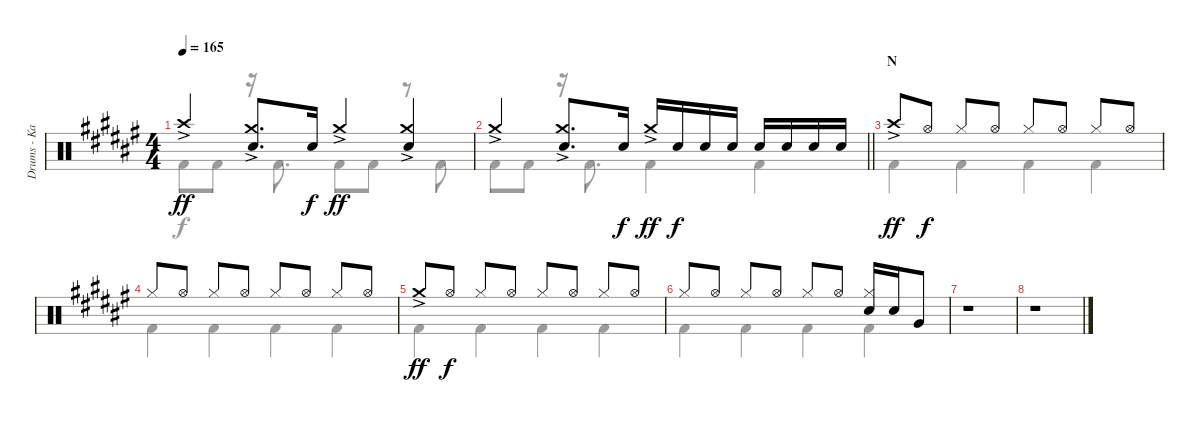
\track ("Drums - Kai" "Drums - Ka") {instrument percussion}
\staff {score}
\articulation defaults
\voice
\ts (4 4)
\tempo 165
\clef neutral
\ks f# "Crash high (hit)"{ac}.4{dy ff}
("Crash medium (hit)"{ac} "Electric Snare (hit)").8{d} "Electric Snare (hit)".16{dy f} "Crash medium (hit)"{ac}.4{dy ff} ("Crash medium (hit)"{ac} "Electric Snare (hit)").4 |
\barLineRight lightlight "Crash medium (hit)"{ac}.4
("Crash medium (hit)"{ac} "Electric Snare (hit)").8{d} "Electric Snare (hit)".16{dy f} "Crash medium (hit)"{ac}.16{dy ff} "Electric Snare (hit)".16{dy f} "Electric Snare (hit)".16 "Electric Snare (hit)".16 "Electric Snare (hit)".16 "Electric Snare (hit)".16 "Electric Snare (hit)".16 "Electric Snare (hit)".16 |
\section ("" "N")
"Crash high (hit)"{ac}.8{dy ff} "Hi-Hat (open)".8{dy f} "Hi-Hat (closed)".8 "Hi-Hat (open)".8 "Hi-Hat (closed)".8 "Hi-Hat (open)".8 "Hi-Hat (closed)".8 "Hi-Hat (open)".8 |
"Hi-Hat (closed)".8 "Hi-Hat (open)".8 "Hi-Hat (closed)".8 "Hi-Hat (open)".8 "Hi-Hat (closed)".8 "Hi-Hat (open)".8 "Hi-Hat (closed)".8 "Hi-Hat (open)".8 |
"Crash medium (hit)"{ac}.8{dy ff} "Hi-Hat (open)".8{dy f} "Hi-Hat (closed)".8 "Hi-Hat (open)".8 "Hi-Hat (closed)".8 "Hi-Hat (open)".8 "Hi-Hat (closed)".8 "Hi-Hat (open)".8 |
"Hi-Hat (closed)".8 "Hi-Hat (open)".8 "Hi-Hat (closed)".8 "Hi-Hat (open)".8 "Hi-Hat (closed)".8 "Hi-Hat (open)".8 ("Hi-Hat (closed)" "Electric Snare (hit)").16 "Electric Snare (hit)".16 "Very Low Tom (hit)".8 |
r.1 |
r.1
\voice
\clef neutral
\ottava regular
\simile none
\ks f# "Kick (hit) 2".8{dy f} "Kick (hit) 2".8
r.16 "Kick (hit) 2".8{d} "Kick (hit) 2".8 "Kick (hit) 2".8 r.8 "Kick (hit) 2".8 |
\barLineRight lightlight "Kick (hit) 2".8 "Kick (hit) 2".8
r.16 "Kick (hit) 2".8{d} "Kick (hit) 2".4 "Kick (hit) 2".4 |
"Kick (hit) 2".4 "Kick (hit) 2".4 "Kick (hit) 2".4 "Kick (hit) 2".4 |
"Kick (hit) 2".4 "Kick (hit) 2".4 "Kick (hit) 2".4 "Kick (hit) 2".4 |
"Kick (hit) 2".4 "Kick (hit) 2".4 "Kick (hit) 2".4 "Kick (hit) 2".4 |
"Kick (hit) 2".4 "Kick (hit) 2".4 "Kick (hit) 2".4 "Kick (hit) 2".4 |
|
